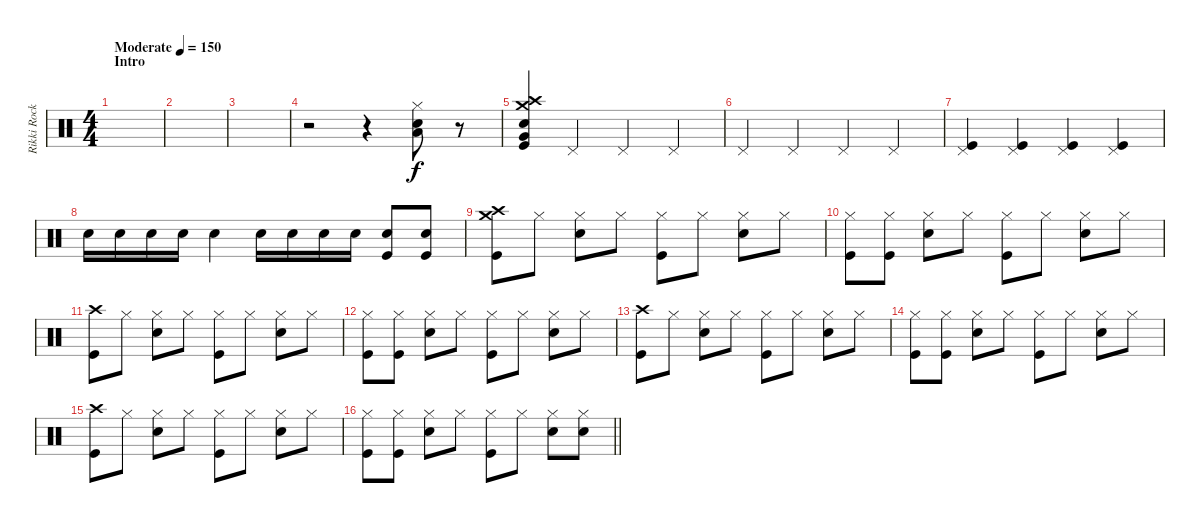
\track ("Rikki Rocket" "Rikki Rock") {instrument percussion}
\staff {score}
\articulation defaults
\ts (4 4)
\section ("" "Intro")
\tempo (150 "Moderate")
\clef neutral
\ks c
|
|
|
r.2 r.4 ("Hi-Hat (closed)" "Low Tom (hit)" "Electric Snare (hit)").8 r.8 |
("Crash high (hit)" "Crash medium (hit)" "Very Low Tom (hit)" "Electric Snare (hit)" "Kick (hit)").4 "Pedal Hi-Hat (hit)".4 "Pedal Hi-Hat (hit)".4 "Pedal Hi-Hat (hit)".4 |
"Pedal Hi-Hat (hit)".4 "Pedal Hi-Hat (hit)".4 "Pedal Hi-Hat (hit)".4 "Pedal Hi-Hat (hit)".4 |
("Pedal Hi-Hat (hit)" "Kick (hit)").4 ("Pedal Hi-Hat (hit)" "Kick (hit)").4 ("Pedal Hi-Hat (hit)" "Kick (hit)").4 ("Pedal Hi-Hat (hit)" "Kick (hit)").4 |
"Electric Snare (hit)".16 "Electric Snare (hit)".16 "Electric Snare (hit)".16 "Electric Snare (hit)".16 "Electric Snare (hit)".4 "Electric Snare (hit)".16 "Electric Snare (hit)".16 "Electric Snare (hit)".16 "Electric Snare (hit)".16 ("Electric Snare (hit)" "Kick (hit)").8 ("Electric Snare (hit)" "Kick (hit)").8 |
("Crash medium (hit)" "Crash high (hit)" "Kick (hit)").8 "Hi-Hat (closed)".8 ("Hi-Hat (closed)" "Electric Snare (hit)").8 "Hi-Hat (closed)".8 ("Hi-Hat (closed)" "Kick (hit)").8 "Hi-Hat (closed)".8 ("Hi-Hat (closed)" "Electric Snare (hit)").8 "Hi-Hat (closed)".8 |
("Hi-Hat (closed)" "Kick (hit)").8 ("Hi-Hat (closed)" "Kick (hit)").8 ("Hi-Hat (closed)" "Electric Snare (hit)").8 "Hi-Hat (closed)".8 ("Hi-Hat (closed)" "Kick (hit)").8 "Hi-Hat (closed)".8 ("Hi-Hat (closed)" "Electric Snare (hit)").8 "Hi-Hat (closed)".8 |
("Crash high (hit)" "Kick (hit)").8 "Hi-Hat (closed)".8 ("Hi-Hat (closed)" "Electric Snare (hit)").8 "Hi-Hat (closed)".8 ("Hi-Hat (closed)" "Kick (hit)").8 "Hi-Hat (closed)".8 ("Hi-Hat (closed)" "Electric Snare (hit)").8 "Hi-Hat (closed)".8 |
("Hi-Hat (closed)" "Kick (hit)").8 ("Hi-Hat (closed)" "Kick (hit)").8 ("Hi-Hat (closed)" "Electric Snare (hit)").8 "Hi-Hat (closed)".8 ("Hi-Hat (closed)" "Kick (hit)").8 "Hi-Hat (closed)".8 ("Hi-Hat (closed)" "Electric Snare (hit)").8 "Hi-Hat (closed)".8 |
("Crash high (hit)" "Kick (hit)").8 "Hi-Hat (closed)".8 ("Hi-Hat (closed)" "Electric Snare (hit)").8 "Hi-Hat (closed)".8 ("Hi-Hat (closed)" "Kick (hit)").8 "Hi-Hat (closed)".8 ("Hi-Hat (closed)" "Electric Snare (hit)").8 "Hi-Hat (closed)".8 |
("Hi-Hat (closed)" "Kick (hit)").8 ("Hi-Hat (closed)" "Kick (hit)").8 ("Hi-Hat (closed)" "Electric Snare (hit)").8 "Hi-Hat (closed)".8 ("Hi-Hat (closed)" "Kick (hit)").8 "Hi-Hat (closed)".8 ("Hi-Hat (closed)" "Electric Snare (hit)").8 "Hi-Hat (closed)".8 |
("Crash high (hit)" "Kick (hit)").8 "Hi-Hat (closed)".8 ("Hi-Hat (closed)" "Electric Snare (hit)").8 "Hi-Hat (closed)".8 ("Hi-Hat (closed)" "Kick (hit)").8 "Hi-Hat (closed)".8 ("Hi-Hat (closed)" "Electric Snare (hit)").8 "Hi-Hat (closed)".8 |
\barLineRight lightlight
("Hi-Hat (closed)" "Kick (hit)").8 ("Hi-Hat (closed)" "Kick (hit)").8 ("Hi-Hat (closed)" "Electric Snare (hit)").8 "Hi-Hat (closed)".8 ("Hi-Hat (closed)" "Kick (hit)").8 "Hi-Hat (closed)".8 ("Hi-Hat (closed)" "Electric Snare (hit)").8 ("Hi-Hat (closed)" "Electric Snare (hit)").8
